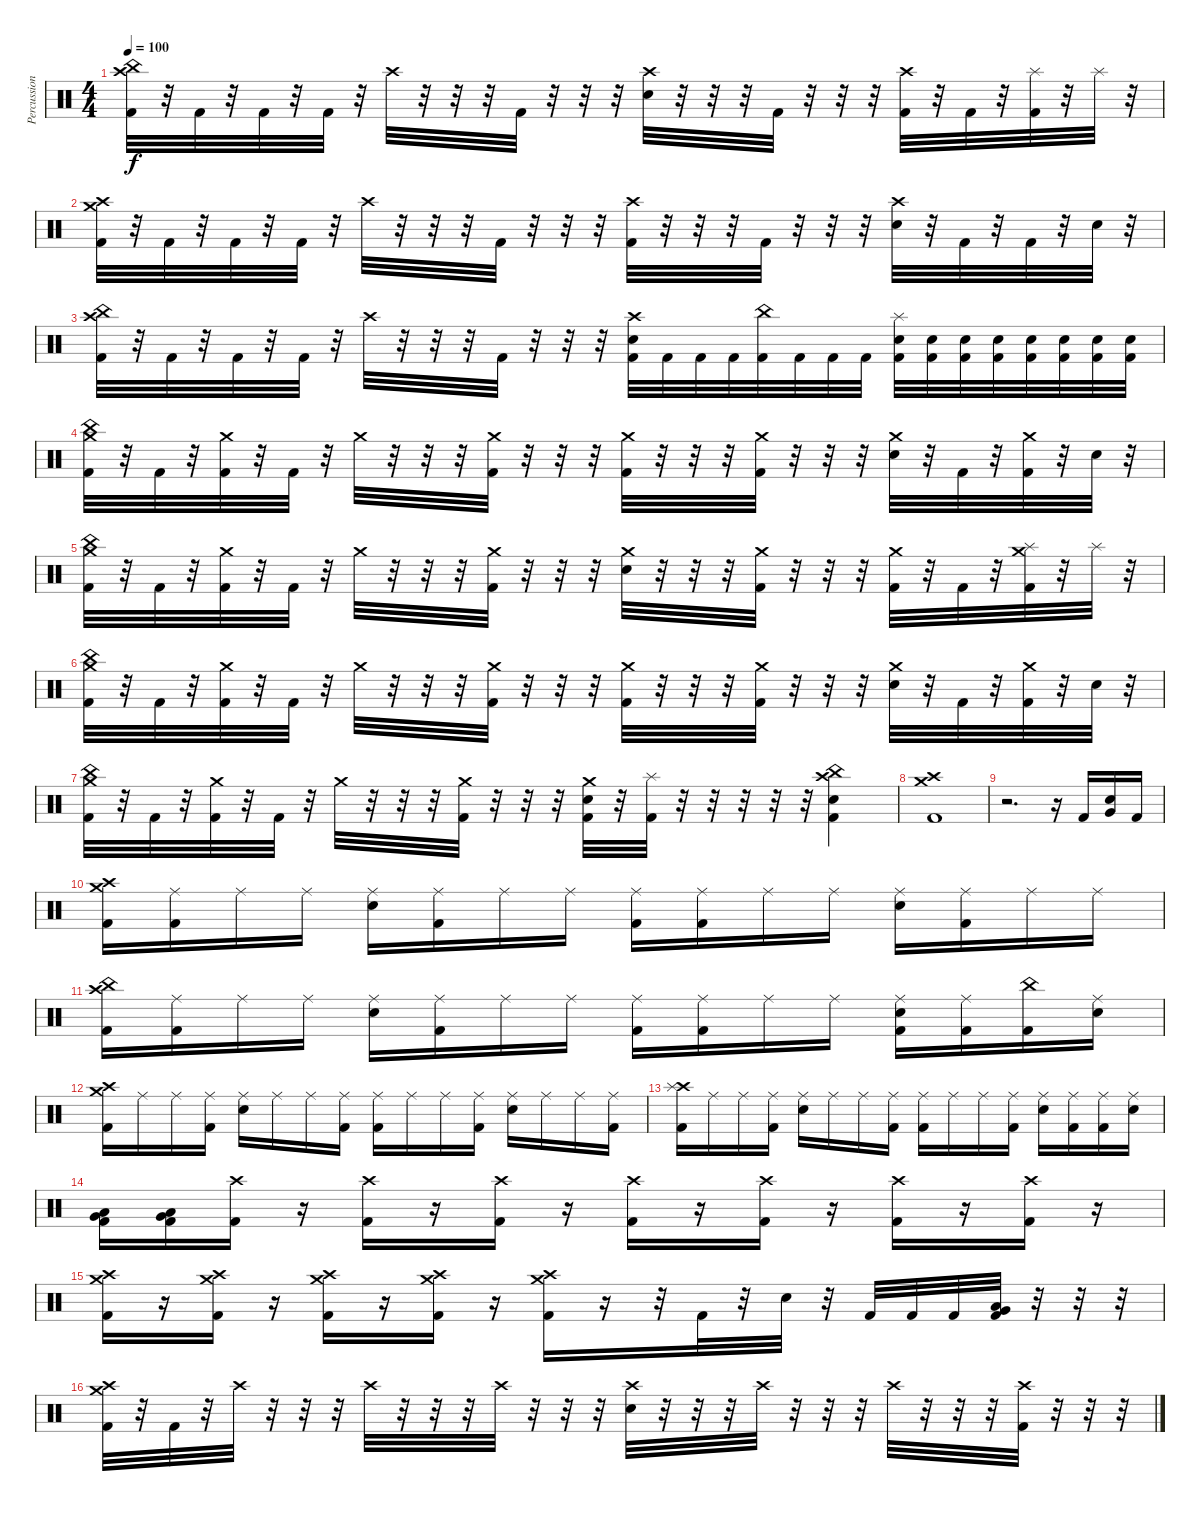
\track ("Percussion" "Percussion") {instrument percussion}
\staff {score}
\articulation defaults
\ts (4 4)
\tempo 100
\clef neutral
\ks c
("Crash high (hit)" "China (hit)" "Kick (hit) 2").32{dy f} r.32 "Kick (hit) 2".32 r.32 "Kick (hit) 2".32 r.32 "Kick (hit) 2".32 r.32 "Crash high (hit)".32 r.32 r.32 r.32 "Kick (hit) 2".32 r.32 r.32 r.32 ("Crash high (hit)" "Electric Snare (hit)").32 r.32 r.32 r.32 "Kick (hit) 2".32 r.32 r.32 r.32 ("Crash high (hit)" "Kick (hit) 2").32 r.32 "Kick (hit) 2".32 r.32 ("Splash (hit)" "Kick (hit) 2").32 r.32 "Splash (hit)".32 r.32 |
("Crash high (hit)" "Crash medium (hit)" "Kick (hit) 2").32 r.32 "Kick (hit) 2".32 r.32 "Kick (hit) 2".32 r.32 "Kick (hit) 2".32 r.32 "Crash high (hit)".32 r.32 r.32 r.32 "Kick (hit) 2".32 r.32 r.32 r.32 ("Crash high (hit)" "Kick (hit) 2").32 r.32 r.32 r.32 "Kick (hit) 2".32 r.32 r.32 r.32 ("Crash high (hit)" "Electric Snare (hit)").32 r.32 "Kick (hit) 2".32 r.32 "Kick (hit) 2".32 r.32 "Electric Snare (hit)".32 r.32 |
("Crash high (hit)" "China (hit)" "Kick (hit) 2").32 r.32 "Kick (hit) 2".32 r.32 "Kick (hit) 2".32 r.32 "Kick (hit) 2".32 r.32 "Crash high (hit)".32 r.32 r.32 r.32 "Kick (hit) 2".32 r.32 r.32 r.32 ("Crash high (hit)" "Electric Snare (hit)" "Kick (hit) 2").32 "Kick (hit) 2".32 "Kick (hit) 2".32 "Kick (hit) 2".32 ("China (hit)" "Kick (hit) 2").32 "Kick (hit) 2".32 "Kick (hit) 2".32 "Kick (hit) 2".32 ("Splash (hit)" "Electric Snare (hit)" "Kick (hit) 2").32 ("Electric Snare (hit)" "Kick (hit) 2").32 ("Electric Snare (hit)" "Kick (hit) 2").32 ("Electric Snare (hit)" "Kick (hit) 2").32 ("Electric Snare (hit)" "Kick (hit) 2").32 ("Electric Snare (hit)" "Kick (hit) 2").32 ("Electric Snare (hit)" "Kick (hit) 2").32 ("Electric Snare (hit)" "Kick (hit) 2").32 |
("China (hit)" "Crash medium (hit)" "Kick (hit) 2").32 r.32 "Kick (hit) 2".32 r.32 ("Crash medium (hit)" "Kick (hit) 2").32 r.32 "Kick (hit) 2".32 r.32 "Crash medium (hit)".32 r.32 r.32 r.32 ("Crash medium (hit)" "Kick (hit) 2").32 r.32 r.32 r.32 ("Crash medium (hit)" "Kick (hit) 2").32 r.32 r.32 r.32 ("Crash medium (hit)" "Kick (hit) 2").32 r.32 r.32 r.32 ("Crash medium (hit)" "Electric Snare (hit)").32 r.32 "Kick (hit) 2".32 r.32 ("Crash medium (hit)" "Kick (hit) 2").32 r.32 "Electric Snare (hit)".32 r.32 |
("Crash medium (hit)" "China (hit)" "Kick (hit) 2").32 r.32 "Kick (hit) 2".32 r.32 ("Crash medium (hit)" "Kick (hit) 2").32 r.32 "Kick (hit) 2".32 r.32 "Crash medium (hit)".32 r.32 r.32 r.32 ("Crash medium (hit)" "Kick (hit) 2").32 r.32 r.32 r.32 ("Crash medium (hit)" "Electric Snare (hit)").32 r.32 r.32 r.32 ("Crash medium (hit)" "Kick (hit) 2").32 r.32 r.32 r.32 ("Crash medium (hit)" "Kick (hit) 2").32 r.32 "Kick (hit) 2".32 r.32 ("Crash medium (hit)" "Splash (hit)" "Kick (hit) 2").32 r.32 "Splash (hit)".32 r.32 |
("China (hit)" "Crash medium (hit)" "Kick (hit) 2").32 r.32 "Kick (hit) 2".32 r.32 ("Crash medium (hit)" "Kick (hit) 2").32 r.32 "Kick (hit) 2".32 r.32 "Crash medium (hit)".32 r.32 r.32 r.32 ("Crash medium (hit)" "Kick (hit) 2").32 r.32 r.32 r.32 ("Crash medium (hit)" "Kick (hit) 2").32 r.32 r.32 r.32 ("Crash medium (hit)" "Kick (hit) 2").32 r.32 r.32 r.32 ("Crash medium (hit)" "Electric Snare (hit)").32 r.32 "Kick (hit) 2".32 r.32 ("Crash medium (hit)" "Kick (hit) 2").32 r.32 "Electric Snare (hit)".32 r.32 |
("Crash medium (hit)" "China (hit)" "Kick (hit) 2").32 r.32 "Kick (hit) 2".32 r.32 ("Crash medium (hit)" "Kick (hit) 2").32 r.32 "Kick (hit) 2".32 r.32 "Crash medium (hit)".32 r.32 r.32 r.32 ("Crash medium (hit)" "Kick (hit) 2").32 r.32 r.32 r.32 ("Crash medium (hit)" "Electric Snare (hit)" "Kick (hit) 2").32 r.32 ("Splash (hit)" "Kick (hit) 2").32 r.32 r.32 r.32 r.32 r.32 ("China (hit)" "Crash high (hit)" "Electric Snare (hit)" "Kick (hit) 2").4 |
("Crash high (hit)" "Crash medium (hit)" "Kick (hit) 2").1 |
r.2{d} r.16 "Kick (hit) 2".16 ("Very Low Tom (hit)" "Electric Snare (hit)").16 "Kick (hit) 2".16 |
("Crash high (hit)" "Crash medium (hit)" "Kick (hit) 2").16 ("Ride (middle)" "Kick (hit) 2").16 "Ride (middle)".16 "Ride (middle)".16 ("Ride (middle)" "Electric Snare (hit)").16 ("Ride (middle)" "Kick (hit) 2").16 "Ride (middle)".16 "Ride (middle)".16 ("Ride (middle)" "Kick (hit) 2").16 ("Ride (middle)" "Kick (hit) 2").16 "Ride (middle)".16 "Ride (middle)".16 ("Ride (middle)" "Electric Snare (hit)").16 ("Ride (middle)" "Kick (hit) 2").16 "Ride (middle)".16 "Ride (middle)".16 |
("Crash high (hit)" "China (hit)" "Kick (hit) 2").16 ("Ride (middle)" "Kick (hit) 2").16 "Ride (middle)".16 "Ride (middle)".16 ("Ride (middle)" "Electric Snare (hit)").16 ("Ride (middle)" "Kick (hit) 2").16 "Ride (middle)".16 "Ride (middle)".16 ("Ride (middle)" "Kick (hit) 2").16 ("Ride (middle)" "Kick (hit) 2").16 "Ride (middle)".16 "Ride (middle)".16 ("Ride (middle)" "Electric Snare (hit)" "Kick (hit) 2").16 ("Ride (middle)" "Kick (hit) 2").16 ("China (hit)" "Kick (hit) 2").16 ("Ride (middle)" "Electric Snare (hit)").16 |
("Crash high (hit)" "Crash medium (hit)" "Kick (hit) 2").16 "Ride (middle)".16 "Ride (middle)".16 ("Ride (middle)" "Kick (hit) 2").16 ("Ride (middle)" "Electric Snare (hit)").16 "Ride (middle)".16 "Ride (middle)".16 ("Ride (middle)" "Kick (hit) 2").16 ("Ride (middle)" "Kick (hit) 2").16 "Ride (middle)".16 "Ride (middle)".16 ("Ride (middle)" "Kick (hit) 2").16 ("Ride (middle)" "Electric Snare (hit)").16 "Ride (middle)".16 "Ride (middle)".16 ("Ride (middle)" "Kick (hit) 2").16 |
("Crash high (hit)" "Splash (hit)" "Kick (hit) 2").16 "Ride (middle)".16 "Ride (middle)".16 ("Ride (middle)" "Kick (hit) 2").16 ("Ride (middle)" "Electric Snare (hit)").16 "Ride (middle)".16 "Ride (middle)".16 ("Ride (middle)" "Kick (hit) 2").16 ("Ride (middle)" "Kick (hit) 2").16 "Ride (middle)".16 "Ride (middle)".16 ("Ride (middle)" "Kick (hit) 2").16 ("Ride (middle)" "Electric Snare (hit)").16 ("Ride (middle)" "Kick (hit) 2").16 ("Ride (middle)" "Kick (hit) 2").16 ("Ride (middle)" "Electric Snare (hit)").16 |
("Low Tom (hit)" "Very Low Tom (hit)" "Kick (hit) 2").16 ("Low Tom (hit)" "Very Low Tom (hit)" "Kick (hit) 2").16 ("Crash high (hit)" "Kick (hit) 2").16 r.16 ("Crash high (hit)" "Kick (hit) 2").16 r.16 ("Crash high (hit)" "Kick (hit) 2").16 r.16 ("Crash high (hit)" "Kick (hit) 2").16 r.16 ("Crash high (hit)" "Kick (hit) 2").16 r.16 ("Crash high (hit)" "Kick (hit) 2").16 r.16 ("Crash high (hit)" "Kick (hit) 2").16 r.16 |
("Crash high (hit)" "Crash medium (hit)" "Kick (hit) 2").16 r.16 ("Crash high (hit)" "Crash medium (hit)" "Kick (hit) 2").16 r.16 ("Crash high (hit)" "Crash medium (hit)" "Kick (hit) 2").16 r.16 ("Crash high (hit)" "Crash medium (hit)" "Kick (hit) 2").16 r.16 ("Crash high (hit)" "Crash medium (hit)" "Kick (hit) 2").16 r.16 r.32 "Kick (hit) 2".32 r.32 "Electric Snare (hit)".32 r.32 "Kick (hit) 2".32 "Kick (hit) 2".32 "Kick (hit) 2".32 ("Low Tom (hit)" "Very Low Tom (hit)" "Kick (hit) 2").32 r.32 r.32 r.32 |
("Crash high (hit)" "Crash medium (hit)" "Kick (hit) 2").32 r.32 "Kick (hit) 2".32 r.32 "Crash high (hit)".32 r.32 r.32 r.32 "Crash high (hit)".32 r.32 r.32 r.32 "Crash high (hit)".32 r.32 r.32 r.32 ("Crash high (hit)" "Electric Snare (hit)").32 r.32 r.32 r.32 "Crash high (hit)".32 r.32 r.32 r.32 "Crash high (hit)".32 r.32 r.32 r.32 ("Crash high (hit)" "Kick (hit) 2").32 r.32 r.32 r.32
